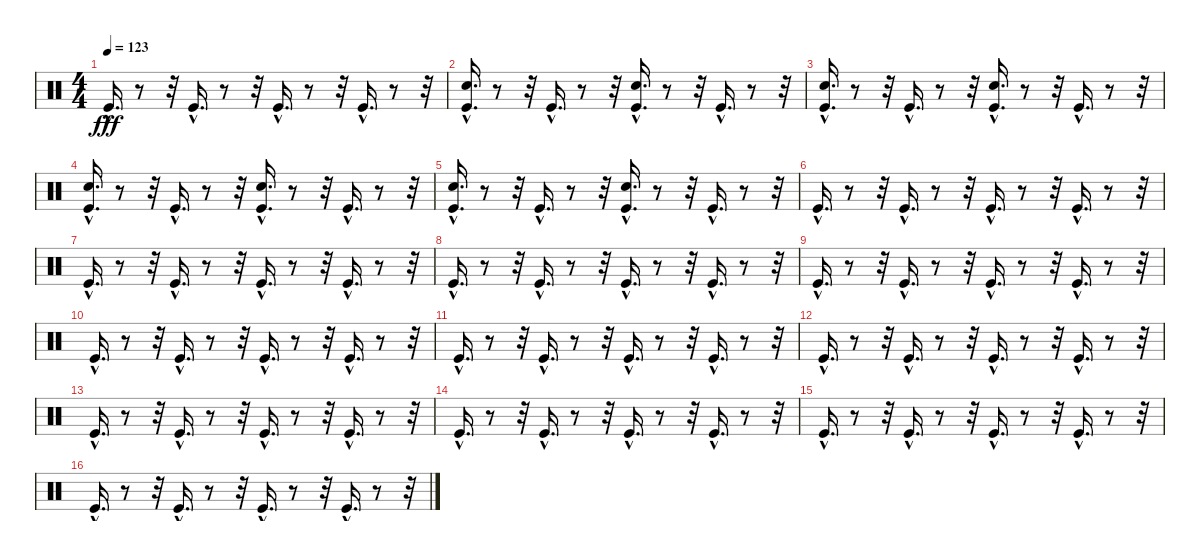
\track "" {instrument percussion}
\staff {score}
\articulation defaults
\ts (4 4)
\tempo 123
\clef neutral
\ks c "Kick (hit)"{hac}.16{d dy fff}
r.8 r.32 "Kick (hit)"{hac}.16{d} r.8 r.32 "Kick (hit)"{hac}.16{d} r.8 r.32 "Kick (hit)"{hac}.16{d} r.8 r.32 |
("Kick (hit)"{hac} "Hand Clap (hit)").16{d} r.8 r.32 "Kick (hit)"{hac}.16{d} r.8 r.32 ("Kick (hit)"{hac} "Hand Clap (hit)").16{d} r.8 r.32 "Kick (hit)"{hac}.16{d} r.8 r.32 |
("Kick (hit)"{hac} "Hand Clap (hit)").16{d} r.8 r.32 "Kick (hit)"{hac}.16{d} r.8 r.32 ("Kick (hit)"{hac} "Hand Clap (hit)").16{d} r.8 r.32 "Kick (hit)"{hac}.16{d} r.8 r.32 |
("Kick (hit)"{hac} "Hand Clap (hit)").16{d} r.8 r.32 "Kick (hit)"{hac}.16{d} r.8 r.32 ("Kick (hit)"{hac} "Hand Clap (hit)").16{d} r.8 r.32 "Kick (hit)"{hac}.16{d} r.8 r.32 |
("Kick (hit)"{hac} "Hand Clap (hit)").16{d} r.8 r.32 "Kick (hit)"{hac}.16{d} r.8 r.32 ("Kick (hit)"{hac} "Hand Clap (hit)").16{d} r.8 r.32 "Kick (hit)"{hac}.16{d} r.8 r.32 |
"Kick (hit)"{hac}.16{d} r.8 r.32 "Kick (hit)"{hac}.16{d} r.8 r.32 "Kick (hit)"{hac}.16{d} r.8 r.32 "Kick (hit)"{hac}.16{d} r.8 r.32 |
"Kick (hit)"{hac}.16{d} r.8 r.32 "Kick (hit)"{hac}.16{d} r.8 r.32 "Kick (hit)"{hac}.16{d} r.8 r.32 "Kick (hit)"{hac}.16{d} r.8 r.32 |
"Kick (hit)"{hac}.16{d} r.8 r.32 "Kick (hit)"{hac}.16{d} r.8 r.32 "Kick (hit)"{hac}.16{d} r.8 r.32 "Kick (hit)"{hac}.16{d} r.8 r.32 |
"Kick (hit)"{hac}.16{d} r.8 r.32 "Kick (hit)"{hac}.16{d} r.8 r.32 "Kick (hit)"{hac}.16{d} r.8 r.32 "Kick (hit)"{hac}.16{d} r.8 r.32 |
"Kick (hit)"{hac}.16{d} r.8 r.32 "Kick (hit)"{hac}.16{d} r.8 r.32 "Kick (hit)"{hac}.16{d} r.8 r.32 "Kick (hit)"{hac}.16{d} r.8 r.32 |
"Kick (hit)"{hac}.16{d} r.8 r.32 "Kick (hit)"{hac}.16{d} r.8 r.32 "Kick (hit)"{hac}.16{d} r.8 r.32 "Kick (hit)"{hac}.16{d} r.8 r.32 |
"Kick (hit)"{hac}.16{d} r.8 r.32 "Kick (hit)"{hac}.16{d} r.8 r.32 "Kick (hit)"{hac}.16{d} r.8 r.32 "Kick (hit)"{hac}.16{d} r.8 r.32 |
"Kick (hit)"{hac}.16{d} r.8 r.32 "Kick (hit)"{hac}.16{d} r.8 r.32 "Kick (hit)"{hac}.16{d} r.8 r.32 "Kick (hit)"{hac}.16{d} r.8 r.32 |
"Kick (hit)"{hac}.16{d} r.8 r.32 "Kick (hit)"{hac}.16{d} r.8 r.32 "Kick (hit)"{hac}.16{d} r.8 r.32 "Kick (hit)"{hac}.16{d} r.8 r.32 |
"Kick (hit)"{hac}.16{d} r.8 r.32 "Kick (hit)"{hac}.16{d} r.8 r.32 "Kick (hit)"{hac}.16{d} r.8 r.32 "Kick (hit)"{hac}.16{d} r.8 r.32 |
"Kick (hit)"{hac}.16{d} r.8 r.32 "Kick (hit)"{hac}.16{d} r.8 r.32 "Kick (hit)"{hac}.16{d} r.8 r.32 "Kick (hit)"{hac}.16{d} r.8 r.32
